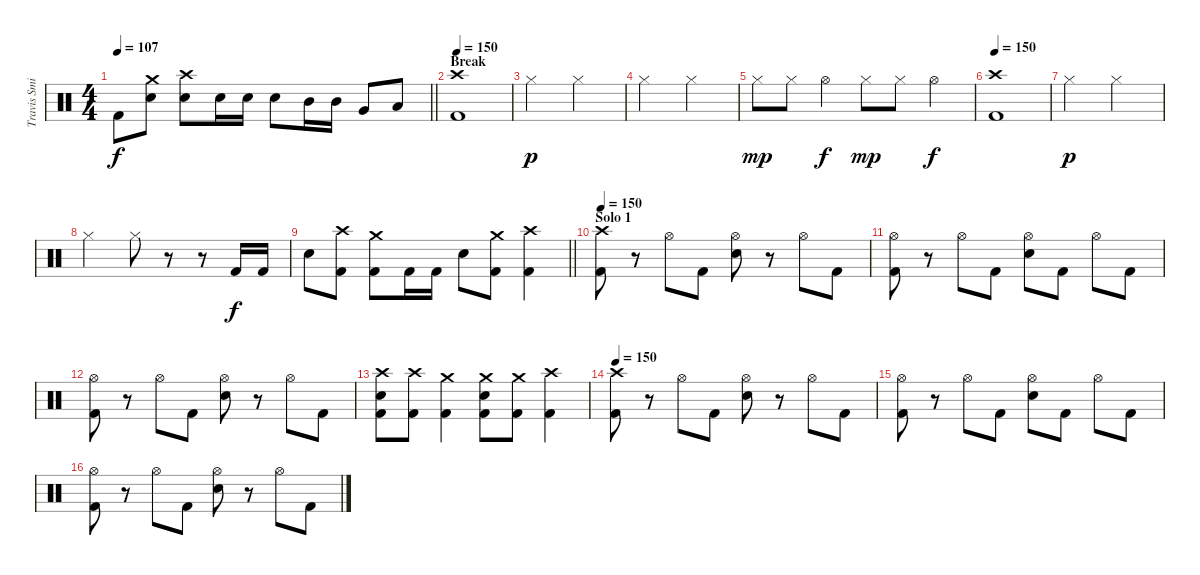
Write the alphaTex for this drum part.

\track ("Travis Smith" "Travis Smi") {instrument percussion}
\staff {score}
\articulation defaults
\ts (4 4)
\tempo 107
\clef neutral
\barLineRight lightlight
\ks c "Kick (hit) 2".8{dy f}
("Crash medium (hit)" "Electric Snare (hit)").8 ("Crash high (hit)" "Electric Snare (hit)").8 "Electric Snare (hit)".16 "Electric Snare (hit)".16 "Electric Snare (hit)".8 "Mid Tom (hit)".16 "Mid Tom (hit)".16 "Very Low Tom (hit)".8 "Low Floor Tom (hit)".8 |
\section ("" "Break")
\tempo 150
("Crash high (hit)" "Kick (hit) 2").1 |
"Hi-Hat (closed)".2{dy p} "Hi-Hat (closed)".2 |
"Hi-Hat (closed)".2 "Hi-Hat (closed)".2 |
"Hi-Hat (closed)".8{dy mp} "Hi-Hat (closed)".8 "Hi-Hat (open)".4{dy f} "Hi-Hat (closed)".8{dy mp} "Hi-Hat (closed)".8 "Hi-Hat (open)".4{dy f} |
\tempo 150
("Crash high (hit)" "Kick (hit) 2").1 |
"Hi-Hat (closed)".2{dy p} "Hi-Hat (closed)".2 |
"Hi-Hat (closed)".2 "Hi-Hat (closed)".8 r.8 r.8 "Kick (hit) 2".16{dy f} "Kick (hit) 2".16 |
\barLineRight lightlight "Electric Snare (hit)".8
("Crash high (hit)" "Kick (hit) 2").8 ("Crash medium (hit)" "Kick (hit) 2").8 "Kick (hit) 2".16 "Kick (hit) 2".16 "Electric Snare (hit)".8 ("Crash medium (hit)" "Kick (hit) 2").8 ("Crash high (hit)" "Kick (hit) 2").4 |
\section ("" "Solo 1")
\tempo 150
("Crash high (hit)" "Kick (hit) 2").8 r.8 "Hi-Hat (open)".8 "Kick (hit) 2".8 ("Hi-Hat (open)" "Electric Snare (hit)").8 r.8 "Hi-Hat (open)".8 "Kick (hit) 2".8 |
("Hi-Hat (open)" "Kick (hit) 2").8 r.8 "Hi-Hat (open)".8 "Kick (hit) 2".8 ("Hi-Hat (open)" "Electric Snare (hit)").8 "Kick (hit) 2".8 "Hi-Hat (open)".8 "Kick (hit) 2".8 |
("Hi-Hat (open)" "Kick (hit) 2").8 r.8 "Hi-Hat (open)".8 "Kick (hit) 2".8 ("Hi-Hat (open)" "Electric Snare (hit)").8 r.8 "Hi-Hat (open)".8 "Kick (hit) 2".8 |
("Crash high (hit)" "Electric Snare (hit)" "Kick (hit) 2").8 ("Crash high (hit)" "Kick (hit) 2").8 ("Crash medium (hit)" "Kick (hit) 2").4 ("Crash medium (hit)" "Electric Snare (hit)" "Kick (hit) 2").8 ("Crash medium (hit)" "Kick (hit) 2").8 ("Crash high (hit)" "Kick (hit) 2").4 |
\tempo 150
("Crash high (hit)" "Kick (hit) 2").8 r.8 "Hi-Hat (open)".8 "Kick (hit) 2".8 ("Hi-Hat (open)" "Electric Snare (hit)").8 r.8 "Hi-Hat (open)".8 "Kick (hit) 2".8 |
("Hi-Hat (open)" "Kick (hit) 2").8 r.8 "Hi-Hat (open)".8 "Kick (hit) 2".8 ("Hi-Hat (open)" "Electric Snare (hit)").8 "Kick (hit) 2".8 "Hi-Hat (open)".8 "Kick (hit) 2".8 |
("Hi-Hat (open)" "Kick (hit) 2").8 r.8 "Hi-Hat (open)".8 "Kick (hit) 2".8 ("Hi-Hat (open)" "Electric Snare (hit)").8 r.8 "Hi-Hat (open)".8 "Kick (hit) 2".8
